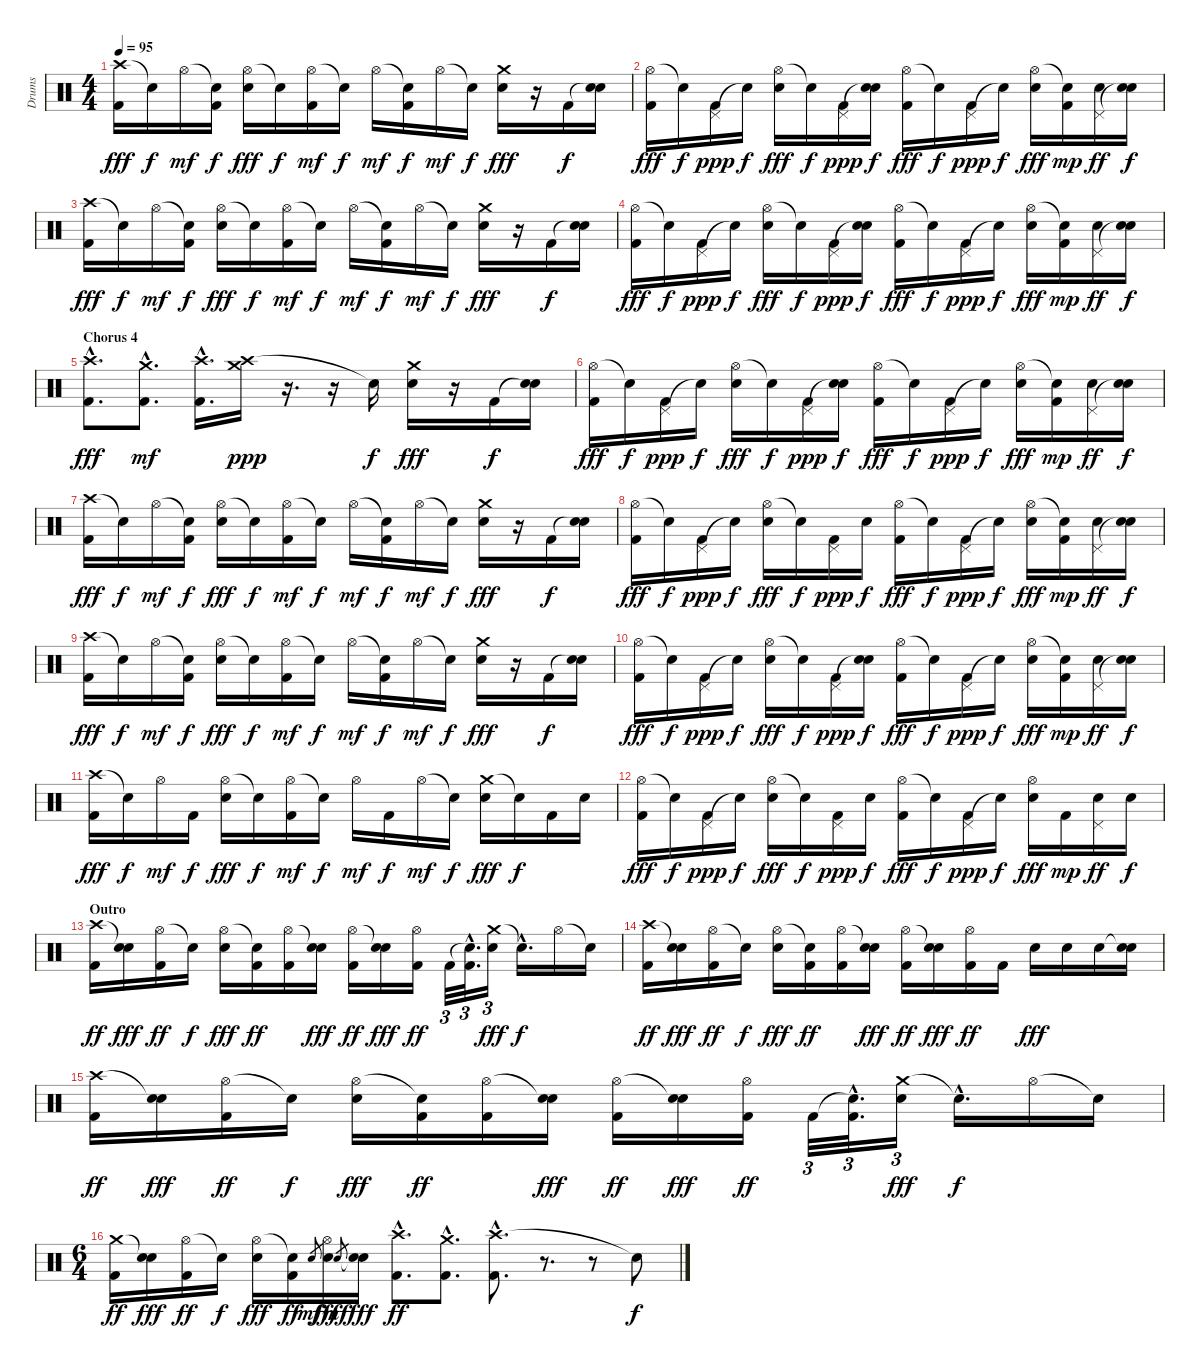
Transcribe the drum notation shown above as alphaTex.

\track ("Drums" "Drums") {instrument percussion}
\staff {score}
\articulation defaults
\ts (4 4)
\tempo 95
\clef neutral
\ks c
("Crash high (hit)" "Kick (hit) 2").16{dy fff} "Snare (hit)"{t}.16{dy f} "Hi-Hat (open)".16{dy mf} ("Snare (hit)"{t} "Kick (hit) 2").16{dy f} ("Hi-Hat (open)" "Electric Snare (hit)").16{dy fff} "Snare (hit)"{t}.16{dy f} ("Hi-Hat (open)" "Kick (hit) 2").16{dy mf} "Snare (hit)"{t}.16{dy f} "Hi-Hat (open)".16{dy mf} ("Snare (hit)"{t} "Kick (hit) 2").16{dy f} "Hi-Hat (open)".16{dy mf} "Snare (hit)"{t}.16{dy f} ("Crash medium (hit)" "Electric Snare (hit)").16{dy fff} r.16 "Kick (hit) 2".16{dy f} ("Snare (hit)"{t} "Electric Snare (hit)").16 |
("Hi-Hat (open)" "Kick (hit) 2").16{dy fff} "Snare (hit)"{t}.16{dy f} ("Pedal Hi-Hat (hit)" "Kick (hit) 2").16{dy ppp} "Snare (hit)"{t}.16{dy f} ("Hi-Hat (open)" "Electric Snare (hit)").16{dy fff} "Snare (hit)"{t}.16{dy f} ("Pedal Hi-Hat (hit)" "Kick (hit) 2").16{dy ppp} ("Snare (hit)"{t} "Electric Snare (hit)").16{dy f} ("Hi-Hat (open)" "Kick (hit) 2").16{dy fff} "Snare (hit)"{t}.16{dy f} ("Pedal Hi-Hat (hit)" "Kick (hit) 2").16{dy ppp} "Snare (hit)"{t}.16{dy f} ("Hi-Hat (open)" "Electric Snare (hit)").16{dy fff} ("Snare (hit)"{t} "Kick (hit) 2").16{dy mp} ("Pedal Hi-Hat (hit)" "Electric Snare (hit)").16{dy ff} ("Snare (hit)"{t} "Electric Snare (hit)").16{dy f} |
("Crash high (hit)" "Kick (hit) 2").16{dy fff} "Snare (hit)"{t}.16{dy f} "Hi-Hat (open)".16{dy mf} ("Snare (hit)"{t} "Kick (hit) 2").16{dy f} ("Hi-Hat (open)" "Electric Snare (hit)").16{dy fff} "Snare (hit)"{t}.16{dy f} ("Hi-Hat (open)" "Kick (hit) 2").16{dy mf} "Snare (hit)"{t}.16{dy f} "Hi-Hat (open)".16{dy mf} ("Snare (hit)"{t} "Kick (hit) 2").16{dy f} "Hi-Hat (open)".16{dy mf} "Snare (hit)"{t}.16{dy f} ("Crash medium (hit)" "Electric Snare (hit)").16{dy fff} r.16 "Kick (hit) 2".16{dy f} ("Snare (hit)"{t} "Electric Snare (hit)").16 |
("Hi-Hat (open)" "Kick (hit) 2").16{dy fff} "Snare (hit)"{t}.16{dy f} ("Pedal Hi-Hat (hit)" "Kick (hit) 2").16{dy ppp} "Snare (hit)"{t}.16{dy f} ("Hi-Hat (open)" "Electric Snare (hit)").16{dy fff} "Snare (hit)"{t}.16{dy f} ("Pedal Hi-Hat (hit)" "Kick (hit) 2").16{dy ppp} ("Snare (hit)"{t} "Electric Snare (hit)").16{dy f} ("Hi-Hat (open)" "Kick (hit) 2").16{dy fff} "Snare (hit)"{t}.16{dy f} ("Pedal Hi-Hat (hit)" "Kick (hit) 2").16{dy ppp} "Snare (hit)"{t}.16{dy f} ("Hi-Hat (open)" "Electric Snare (hit)").16{dy fff} ("Snare (hit)"{t} "Kick (hit) 2").16{dy mp} ("Pedal Hi-Hat (hit)" "Electric Snare (hit)").16{dy ff} ("Snare (hit)"{t} "Electric Snare (hit)").16{dy f} |
\section ("" "Chorus 4")
("Crash high (hit)"{hac} "Kick (hit) 2"{hac}).8{d dy fff} ("Crash medium (hit)"{hac} "Kick (hit) 2"{hac}).8{d dy mf} ("Crash high (hit)"{hac} "Kick (hit) 2"{hac}).16{d} ("Crash high (hit)" "Crash medium (hit)").16{dy ppp} r.16{d} r.16 "Snare (hit)"{t}.16{dy f} ("Crash medium (hit)" "Electric Snare (hit)").16{dy fff} r.16 "Kick (hit) 2".16{dy f} ("Snare (hit)"{t} "Electric Snare (hit)").16 |
("Hi-Hat (open)" "Kick (hit) 2").16{dy fff} "Snare (hit)"{t}.16{dy f} ("Pedal Hi-Hat (hit)" "Kick (hit) 2").16{dy ppp} "Snare (hit)"{t}.16{dy f} ("Hi-Hat (open)" "Electric Snare (hit)").16{dy fff} "Snare (hit)"{t}.16{dy f} ("Pedal Hi-Hat (hit)" "Kick (hit) 2").16{dy ppp} ("Snare (hit)"{t} "Electric Snare (hit)").16{dy f} ("Hi-Hat (open)" "Kick (hit) 2").16{dy fff} "Snare (hit)"{t}.16{dy f} ("Pedal Hi-Hat (hit)" "Kick (hit) 2").16{dy ppp} "Snare (hit)"{t}.16{dy f} ("Hi-Hat (open)" "Electric Snare (hit)").16{dy fff} ("Snare (hit)"{t} "Kick (hit) 2").16{dy mp} ("Pedal Hi-Hat (hit)" "Electric Snare (hit)").16{dy ff} ("Snare (hit)"{t} "Electric Snare (hit)").16{dy f} |
("Crash high (hit)" "Kick (hit) 2").16{dy fff} "Snare (hit)"{t}.16{dy f} "Hi-Hat (open)".16{dy mf} ("Snare (hit)"{t} "Kick (hit) 2").16{dy f} ("Hi-Hat (open)" "Electric Snare (hit)").16{dy fff} "Snare (hit)"{t}.16{dy f} ("Hi-Hat (open)" "Kick (hit) 2").16{dy mf} "Snare (hit)"{t}.16{dy f} "Hi-Hat (open)".16{dy mf} ("Snare (hit)"{t} "Kick (hit) 2").16{dy f} "Hi-Hat (open)".16{dy mf} "Snare (hit)"{t}.16{dy f} ("Crash medium (hit)" "Electric Snare (hit)").16{dy fff} r.16 "Kick (hit) 2".16{dy f} ("Snare (hit)"{t} "Electric Snare (hit)").16 |
("Hi-Hat (open)" "Kick (hit) 2").16{dy fff} "Snare (hit)"{t}.16{dy f} ("Pedal Hi-Hat (hit)" "Kick (hit) 2").16{dy ppp} "Snare (hit)"{t}.16{dy f} ("Hi-Hat (open)" "Electric Snare (hit)").16{dy fff} "Snare (hit)"{t}.16{dy f} ("Pedal Hi-Hat (hit)" "Kick (hit) 2").16{dy ppp} "Electric Snare (hit)".16{dy f} ("Hi-Hat (open)" "Kick (hit) 2").16{dy fff} "Snare (hit)"{t}.16{dy f} ("Pedal Hi-Hat (hit)" "Kick (hit) 2").16{dy ppp} "Snare (hit)"{t}.16{dy f} ("Hi-Hat (open)" "Electric Snare (hit)").16{dy fff} ("Snare (hit)"{t} "Kick (hit) 2").16{dy mp} ("Pedal Hi-Hat (hit)" "Electric Snare (hit)").16{dy ff} ("Snare (hit)"{t} "Electric Snare (hit)").16{dy f} |
("Crash high (hit)" "Kick (hit) 2").16{dy fff} "Snare (hit)"{t}.16{dy f} "Hi-Hat (open)".16{dy mf} ("Snare (hit)"{t} "Kick (hit) 2").16{dy f} ("Hi-Hat (open)" "Electric Snare (hit)").16{dy fff} "Snare (hit)"{t}.16{dy f} ("Hi-Hat (open)" "Kick (hit) 2").16{dy mf} "Snare (hit)"{t}.16{dy f} "Hi-Hat (open)".16{dy mf} ("Snare (hit)"{t} "Kick (hit) 2").16{dy f} "Hi-Hat (open)".16{dy mf} "Snare (hit)"{t}.16{dy f} ("Crash medium (hit)" "Electric Snare (hit)").16{dy fff} r.16 "Kick (hit) 2".16{dy f} ("Snare (hit)"{t} "Electric Snare (hit)").16 |
("Hi-Hat (open)" "Kick (hit) 2").16{dy fff} "Snare (hit)"{t}.16{dy f} ("Pedal Hi-Hat (hit)" "Kick (hit) 2").16{dy ppp} "Snare (hit)"{t}.16{dy f} ("Hi-Hat (open)" "Electric Snare (hit)").16{dy fff} "Snare (hit)"{t}.16{dy f} ("Pedal Hi-Hat (hit)" "Kick (hit) 2").16{dy ppp} ("Snare (hit)"{t} "Electric Snare (hit)").16{dy f} ("Hi-Hat (open)" "Kick (hit) 2").16{dy fff} "Snare (hit)"{t}.16{dy f} ("Pedal Hi-Hat (hit)" "Kick (hit) 2").16{dy ppp} "Snare (hit)"{t}.16{dy f} ("Hi-Hat (open)" "Electric Snare (hit)").16{dy fff} ("Snare (hit)"{t} "Kick (hit) 2").16{dy mp} ("Pedal Hi-Hat (hit)" "Electric Snare (hit)").16{dy ff} ("Snare (hit)"{t} "Electric Snare (hit)").16{dy f} |
("Crash high (hit)" "Kick (hit) 2").16{dy fff} "Snare (hit)"{t}.16{dy f} "Hi-Hat (open)".16{dy mf} "Kick (hit) 2".16{dy f} ("Hi-Hat (open)" "Electric Snare (hit)").16{dy fff} "Snare (hit)"{t}.16{dy f} ("Hi-Hat (open)" "Kick (hit) 2").16{dy mf} "Snare (hit)"{t}.16{dy f} "Hi-Hat (open)".16{dy mf} "Kick (hit) 2".16{dy f} "Hi-Hat (open)".16{dy mf} "Snare (hit)"{t}.16{dy f} ("Crash medium (hit)" "Electric Snare (hit)").16{dy fff} "Snare (hit)"{t}.16{dy f} "Kick (hit) 2".16 "Electric Snare (hit)".16 |
("Hi-Hat (open)" "Kick (hit) 2").16{dy fff} "Snare (hit)"{t}.16{dy f} ("Pedal Hi-Hat (hit)" "Kick (hit) 2").16{dy ppp} "Snare (hit)"{t}.16{dy f} ("Hi-Hat (open)" "Electric Snare (hit)").16{dy fff} "Snare (hit)"{t}.16{dy f} ("Pedal Hi-Hat (hit)" "Kick (hit) 2").16{dy ppp} "Electric Snare (hit)".16{dy f} ("Hi-Hat (open)" "Kick (hit) 2").16{dy fff} "Snare (hit)"{t}.16{dy f} ("Pedal Hi-Hat (hit)" "Kick (hit) 2").16{dy ppp} "Snare (hit)"{t}.16{dy f} ("Hi-Hat (open)" "Electric Snare (hit)").16{dy fff} "Kick (hit) 2".16{dy mp} ("Pedal Hi-Hat (hit)" "Electric Snare (hit)").16{dy ff} "Electric Snare (hit)".16{dy f} |
\section ("" "Outro")
("Crash high (hit)" "Kick (hit) 2").16{dy ff} ("Snare (hit)"{t} "Electric Snare (hit)").16{dy fff} ("Hi-Hat (open)" "Kick (hit) 2").16{dy ff} "Snare (hit)"{t}.16{dy f} ("Hi-Hat (open)" "Electric Snare (hit)").16{dy fff} ("Snare (hit)"{t} "Kick (hit) 2").16{dy ff} ("Hi-Hat (open)" "Kick (hit) 2").16 ("Snare (hit)"{t} "Electric Snare (hit)").16{dy fff} ("Hi-Hat (open)" "Kick (hit) 2").16{dy ff} ("Snare (hit)"{t} "Electric Snare (hit)").16{dy fff} ("Hi-Hat (open)" "Kick (hit) 2").16{dy ff} "Kick (hit) 2".32{tu (3 2)} ("Snare (hit)"{hac t} "Kick (hit) 2"{hac}).32{d tu (3 2)} ("Crash medium (hit)" "Electric Snare (hit)").16{tu (3 2) dy fff} "Snare (hit)"{hac t}.16{d dy f} "Hi-Hat (open)".16 "Snare (hit)"{t}.16 |
("Crash high (hit)" "Kick (hit) 2").16{dy ff} ("Snare (hit)"{t} "Electric Snare (hit)").16{dy fff} ("Hi-Hat (open)" "Kick (hit) 2").16{dy ff} "Snare (hit)"{t}.16{dy f} ("Hi-Hat (open)" "Electric Snare (hit)").16{dy fff} ("Snare (hit)"{t} "Kick (hit) 2").16{dy ff} ("Hi-Hat (open)" "Kick (hit) 2").16 ("Snare (hit)"{t} "Electric Snare (hit)").16{dy fff} ("Hi-Hat (open)" "Kick (hit) 2").16{dy ff} ("Snare (hit)"{t} "Electric Snare (hit)").16{dy fff} ("Hi-Hat (open)" "Kick (hit) 2").16{dy ff} "Kick (hit) 2".16 "Electric Snare (hit)".16{dy fff} "Electric Snare (hit)".16 "Electric Snare (hit)".16 ("Snare (hit)"{t} "Electric Snare (hit)").16 |
("Crash high (hit)" "Kick (hit) 2").16{dy ff} ("Snare (hit)"{t} "Electric Snare (hit)").16{dy fff} ("Hi-Hat (open)" "Kick (hit) 2").16{dy ff} "Snare (hit)"{t}.16{dy f} ("Hi-Hat (open)" "Electric Snare (hit)").16{dy fff} ("Snare (hit)"{t} "Kick (hit) 2").16{dy ff} ("Hi-Hat (open)" "Kick (hit) 2").16 ("Snare (hit)"{t} "Electric Snare (hit)").16{dy fff} ("Hi-Hat (open)" "Kick (hit) 2").16{dy ff} ("Snare (hit)"{t} "Electric Snare (hit)").16{dy fff} ("Hi-Hat (open)" "Kick (hit) 2").16{dy ff} "Kick (hit) 2".32{tu (3 2)} ("Snare (hit)"{hac t} "Kick (hit) 2"{hac}).32{d tu (3 2)} ("Crash medium (hit)" "Electric Snare (hit)").16{tu (3 2) dy fff} "Snare (hit)"{hac t}.16{d dy f} "Hi-Hat (open)".16 "Snare (hit)"{t}.16 |
\ts (6 4)
("Crash medium (hit)" "Kick (hit) 2").16{dy ff} ("Snare (hit)"{t} "Electric Snare (hit)").16{dy fff} ("Hi-Hat (open)" "Kick (hit) 2").16{dy ff} "Snare (hit)"{t}.16{dy f} ("Hi-Hat (open)" "Electric Snare (hit)").16{dy fff} ("Snare (hit)"{t} "Kick (hit) 2").16{dy ff} "Electric Snare (hit)".8{gr dy mf} ("Hi-Hat (open)" "Electric Snare (hit)").16{dy fff} "Electric Snare (hit)".8{gr dy mf} ("Snare (hit)"{t} "Electric Snare (hit)").16{dy fff} ("Crash high (hit)"{hac} "Kick (hit) 2"{hac}).8{d dy ff} ("Crash medium (hit)"{hac} "Kick (hit) 2"{hac}).8{d} ("Crash high (hit)"{hac} "Kick (hit) 2"{hac}).8{d} r.8{d} r.8 "Snare (hit)"{t}.8{dy f}
